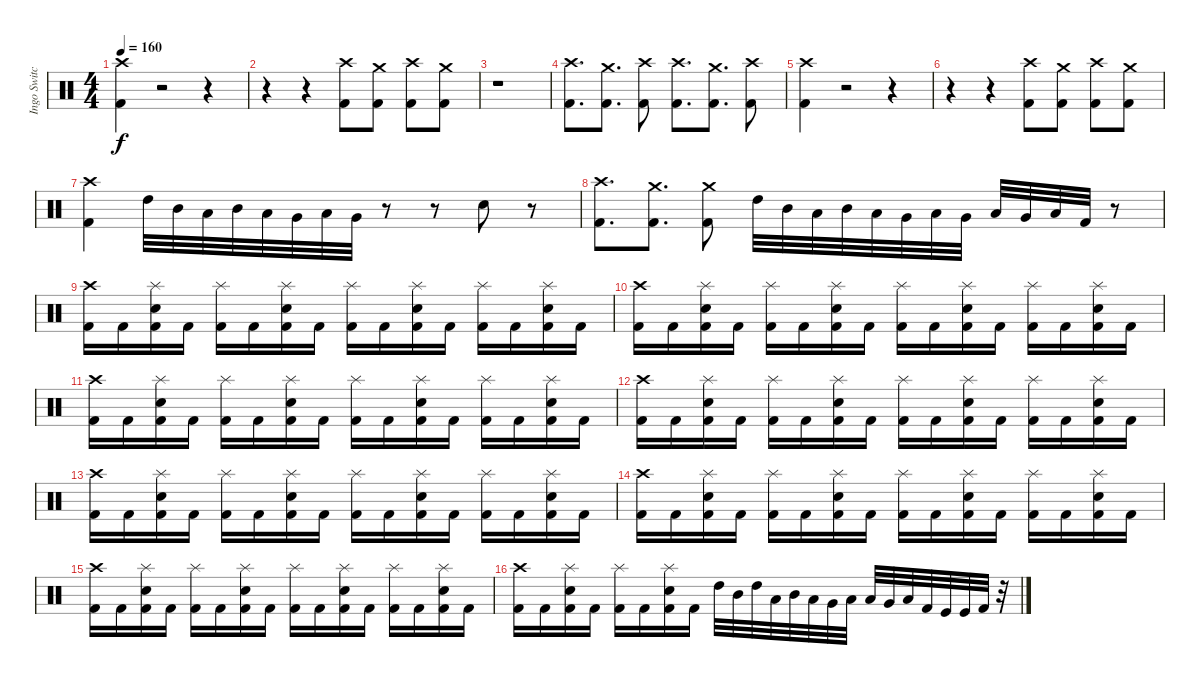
\track ("Ingo Switchenberg" "Ingo Switc") {instrument percussion}
\staff {score}
\articulation defaults
\ts (4 4)
\tempo 160
\clef neutral
\ks c
("Kick (hit) 2" "Crash high (hit)").4{dy f} r.2 r.4 |
r.4 r.4 ("Kick (hit) 2" "Crash high (hit)").8 ("Kick (hit) 2" "Crash medium (hit)").8 ("Kick (hit) 2" "Crash high (hit)").8 ("Kick (hit) 2" "Crash medium (hit)").8 |
r.1 |
("Kick (hit) 2" "Crash high (hit)").8{d} ("Kick (hit) 2" "Crash medium (hit)").8{d} ("Kick (hit) 2" "Crash high (hit)").8 ("Kick (hit) 2" "Crash high (hit)").8{d} ("Kick (hit) 2" "Crash medium (hit)").8{d} ("Kick (hit) 2" "Crash high (hit)").8 |
("Kick (hit) 2" "Crash high (hit)").4 r.2 r.4 |
r.4 r.4 ("Crash high (hit)" "Kick (hit) 2").8 ("Crash medium (hit)" "Kick (hit) 2").8 ("Crash high (hit)" "Kick (hit) 2").8 ("Crash medium (hit)" "Kick (hit) 2").8 |
("Crash high (hit)" "Kick (hit) 2").4 "High Tom (hit)".32 "Mid Tom (hit)".32 "Low Tom (hit)".32 "Mid Tom (hit)".32 "Low Tom (hit)".32 "Very Low Tom (hit)".32 "Low Tom (hit)".32 "Very Low Tom (hit)".32 r.8 r.8 "Snare (hit) 2".8 r.8 |
("Kick (hit) 2" "Crash high (hit)").8{d} ("Kick (hit) 2" "Crash medium (hit)").8{d} ("Kick (hit) 2" "Crash medium (hit)").8 "High Tom (hit)".32 "Mid Tom (hit)".32 "Low Tom (hit)".32 "Mid Tom (hit)".32 "Low Tom (hit)".32 "Very Low Tom (hit)".32 "Low Tom (hit)".32 "Very Low Tom (hit)".32 "Low Floor Tom (hit)".32 "Very Low Tom (hit)".32 "Low Floor Tom (hit)".32 "Kick (hit) 2".32 r.8 |
("Crash high (hit)" "Kick (hit) 2").16 "Kick (hit) 2".16 ("Snare (hit) 2" "Kick (hit) 2" "Splash (hit)").16 "Kick (hit) 2".16 ("Kick (hit) 2" "Splash (hit)").16 "Kick (hit) 2".16 ("Snare (hit) 2" "Kick (hit) 2" "Splash (hit)").16 "Kick (hit) 2".16 ("Kick (hit) 2" "Splash (hit)").16 "Kick (hit) 2".16 ("Snare (hit) 2" "Kick (hit) 2" "Splash (hit)").16 "Kick (hit) 2".16 ("Kick (hit) 2" "Splash (hit)").16 "Kick (hit) 2".16 ("Snare (hit) 2" "Kick (hit) 2" "Splash (hit)").16 "Kick (hit) 2".16 |
("Crash high (hit)" "Kick (hit) 2").16 "Kick (hit) 2".16 ("Snare (hit) 2" "Kick (hit) 2" "Splash (hit)").16 "Kick (hit) 2".16 ("Kick (hit) 2" "Splash (hit)").16 "Kick (hit) 2".16 ("Snare (hit) 2" "Kick (hit) 2" "Splash (hit)").16 "Kick (hit) 2".16 ("Kick (hit) 2" "Splash (hit)").16 "Kick (hit) 2".16 ("Snare (hit) 2" "Kick (hit) 2" "Splash (hit)").16 "Kick (hit) 2".16 ("Kick (hit) 2" "Splash (hit)").16 "Kick (hit) 2".16 ("Snare (hit) 2" "Kick (hit) 2" "Splash (hit)").16 "Kick (hit) 2".16 |
("Crash high (hit)" "Kick (hit) 2").16 "Kick (hit) 2".16 ("Snare (hit) 2" "Kick (hit) 2" "Splash (hit)").16 "Kick (hit) 2".16 ("Kick (hit) 2" "Splash (hit)").16 "Kick (hit) 2".16 ("Snare (hit) 2" "Kick (hit) 2" "Splash (hit)").16 "Kick (hit) 2".16 ("Kick (hit) 2" "Splash (hit)").16 "Kick (hit) 2".16 ("Snare (hit) 2" "Kick (hit) 2" "Splash (hit)").16 "Kick (hit) 2".16 ("Kick (hit) 2" "Splash (hit)").16 "Kick (hit) 2".16 ("Snare (hit) 2" "Kick (hit) 2" "Splash (hit)").16 "Kick (hit) 2".16 |
("Crash high (hit)" "Kick (hit) 2").16 "Kick (hit) 2".16 ("Snare (hit) 2" "Kick (hit) 2" "Splash (hit)").16 "Kick (hit) 2".16 ("Kick (hit) 2" "Splash (hit)").16 "Kick (hit) 2".16 ("Snare (hit) 2" "Kick (hit) 2" "Splash (hit)").16 "Kick (hit) 2".16 ("Kick (hit) 2" "Splash (hit)").16 "Kick (hit) 2".16 ("Snare (hit) 2" "Kick (hit) 2" "Splash (hit)").16 "Kick (hit) 2".16 ("Kick (hit) 2" "Splash (hit)").16 "Kick (hit) 2".16 ("Snare (hit) 2" "Kick (hit) 2" "Splash (hit)").16 "Kick (hit) 2".16 |
("Crash high (hit)" "Kick (hit) 2").16 "Kick (hit) 2".16 ("Snare (hit) 2" "Kick (hit) 2" "Splash (hit)").16 "Kick (hit) 2".16 ("Kick (hit) 2" "Splash (hit)").16 "Kick (hit) 2".16 ("Snare (hit) 2" "Kick (hit) 2" "Splash (hit)").16 "Kick (hit) 2".16 ("Kick (hit) 2" "Splash (hit)").16 "Kick (hit) 2".16 ("Snare (hit) 2" "Kick (hit) 2" "Splash (hit)").16 "Kick (hit) 2".16 ("Kick (hit) 2" "Splash (hit)").16 "Kick (hit) 2".16 ("Snare (hit) 2" "Kick (hit) 2" "Splash (hit)").16 "Kick (hit) 2".16 |
("Crash high (hit)" "Kick (hit) 2").16 "Kick (hit) 2".16 ("Snare (hit) 2" "Kick (hit) 2" "Splash (hit)").16 "Kick (hit) 2".16 ("Kick (hit) 2" "Splash (hit)").16 "Kick (hit) 2".16 ("Snare (hit) 2" "Kick (hit) 2" "Splash (hit)").16 "Kick (hit) 2".16 ("Kick (hit) 2" "Splash (hit)").16 "Kick (hit) 2".16 ("Snare (hit) 2" "Kick (hit) 2" "Splash (hit)").16 "Kick (hit) 2".16 ("Kick (hit) 2" "Splash (hit)").16 "Kick (hit) 2".16 ("Snare (hit) 2" "Kick (hit) 2" "Splash (hit)").16 "Kick (hit) 2".16 |
("Crash high (hit)" "Kick (hit) 2").16 "Kick (hit) 2".16 ("Snare (hit) 2" "Kick (hit) 2" "Splash (hit)").16 "Kick (hit) 2".16 ("Kick (hit) 2" "Splash (hit)").16 "Kick (hit) 2".16 ("Snare (hit) 2" "Kick (hit) 2" "Splash (hit)").16 "Kick (hit) 2".16 ("Kick (hit) 2" "Splash (hit)").16 "Kick (hit) 2".16 ("Snare (hit) 2" "Kick (hit) 2" "Splash (hit)").16 "Kick (hit) 2".16 ("Kick (hit) 2" "Splash (hit)").16 "Kick (hit) 2".16 ("Snare (hit) 2" "Kick (hit) 2" "Splash (hit)").16 "Kick (hit) 2".16 |
("Kick (hit) 2" "Crash high (hit)").16 "Kick (hit) 2".16 ("Kick (hit) 2" "Snare (hit) 2" "Splash (hit)").16 "Kick (hit) 2".16 ("Kick (hit) 2" "Splash (hit)").16 "Kick (hit) 2".16 ("Kick (hit) 2" "Snare (hit) 2" "Splash (hit)").16 "Kick (hit) 2".16 "High Tom (hit)".32 "Mid Tom (hit)".32 "High Tom (hit)".32 "Low Tom (hit)".32 "Mid Tom (hit)".32 "Low Tom (hit)".32 "Very Low Tom (hit)".32 "Low Tom (hit)".32 "Low Floor Tom (hit)".32 "Very Low Tom (hit)".32 "Low Tom (hit)".32 "Kick (hit) 2".32 "Kick (hit)".32 "Kick (hit)".32 "Kick (hit) 2".32 r.32
